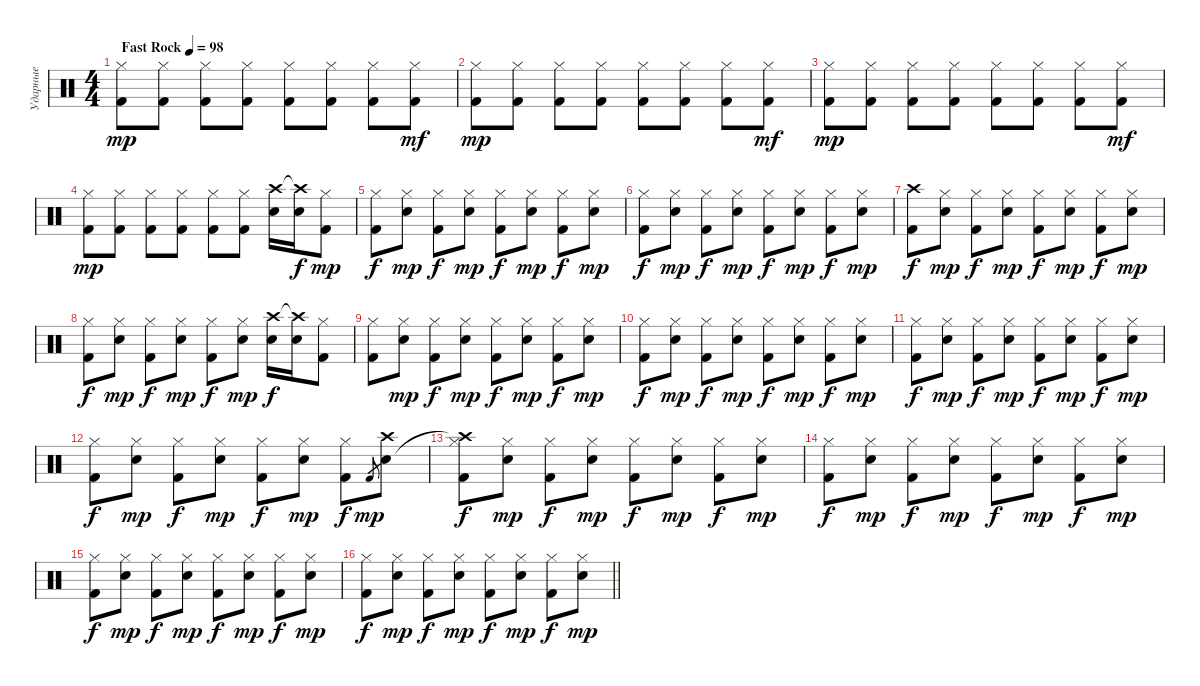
\track ("Ударные" "Ударные") {instrument percussion}
\staff {score}
\articulation defaults
\ts (4 4)
\tempo (98 "Fast Rock")
\clef neutral
\ks c
("Hi-Hat (closed)" "Kick (hit) 2").8{dy mp} ("Hi-Hat (closed)" "Kick (hit) 2").8 ("Hi-Hat (closed)" "Kick (hit) 2").8 ("Hi-Hat (closed)" "Kick (hit) 2").8 ("Hi-Hat (closed)" "Kick (hit) 2").8 ("Hi-Hat (closed)" "Kick (hit) 2").8 ("Hi-Hat (closed)" "Kick (hit) 2").8 ("Hi-Hat (closed)" "Kick (hit) 2").8{dy mf} |
("Hi-Hat (closed)" "Kick (hit) 2").8{dy mp} ("Hi-Hat (closed)" "Kick (hit) 2").8 ("Hi-Hat (closed)" "Kick (hit) 2").8 ("Hi-Hat (closed)" "Kick (hit) 2").8 ("Hi-Hat (closed)" "Kick (hit) 2").8 ("Hi-Hat (closed)" "Kick (hit) 2").8 ("Hi-Hat (closed)" "Kick (hit) 2").8 ("Hi-Hat (closed)" "Kick (hit) 2").8{dy mf} |
("Hi-Hat (closed)" "Kick (hit) 2").8{dy mp} ("Hi-Hat (closed)" "Kick (hit) 2").8 ("Hi-Hat (closed)" "Kick (hit) 2").8 ("Hi-Hat (closed)" "Kick (hit) 2").8 ("Hi-Hat (closed)" "Kick (hit) 2").8 ("Hi-Hat (closed)" "Kick (hit) 2").8 ("Hi-Hat (closed)" "Kick (hit) 2").8 ("Hi-Hat (closed)" "Kick (hit) 2").8{dy mf} |
("Hi-Hat (closed)" "Kick (hit) 2").8{dy mp} ("Hi-Hat (closed)" "Kick (hit) 2").8 ("Hi-Hat (closed)" "Kick (hit) 2").8 ("Hi-Hat (closed)" "Kick (hit) 2").8 ("Hi-Hat (closed)" "Kick (hit) 2").8 ("Hi-Hat (closed)" "Kick (hit) 2").8 ("Crash high (hit)" "Electric Snare (hit)").16 ("Crash high (hit)"{t} "Snare (hit) 2").16{dy f} ("Hi-Hat (closed)" "Kick (hit) 2").8{dy mp} |
("Hi-Hat (closed)" "Kick (hit) 2").8{dy f} ("Hi-Hat (closed)" "Snare (hit) 2").8{dy mp} ("Hi-Hat (closed)" "Kick (hit) 2").8{dy f} ("Hi-Hat (closed)" "Snare (hit) 2").8{dy mp} ("Hi-Hat (closed)" "Kick (hit) 2").8{dy f} ("Hi-Hat (closed)" "Snare (hit) 2").8{dy mp} ("Hi-Hat (closed)" "Kick (hit) 2").8{dy f} ("Hi-Hat (closed)" "Snare (hit) 2").8{dy mp} |
("Hi-Hat (closed)" "Kick (hit) 2").8{dy f} ("Hi-Hat (closed)" "Snare (hit) 2").8{dy mp} ("Hi-Hat (closed)" "Kick (hit) 2").8{dy f} ("Hi-Hat (closed)" "Snare (hit) 2").8{dy mp} ("Hi-Hat (closed)" "Kick (hit) 2").8{dy f} ("Hi-Hat (closed)" "Snare (hit) 2").8{dy mp} ("Hi-Hat (closed)" "Kick (hit) 2").8{dy f} ("Hi-Hat (closed)" "Snare (hit) 2").8{dy mp} |
("Crash high (hit)" "Kick (hit) 2").8{dy f} ("Hi-Hat (closed)" "Snare (hit) 2").8{dy mp} ("Hi-Hat (closed)" "Kick (hit) 2").8{dy f} ("Hi-Hat (closed)" "Snare (hit) 2").8{dy mp} ("Hi-Hat (closed)" "Kick (hit) 2").8{dy f} ("Hi-Hat (closed)" "Snare (hit) 2").8{dy mp} ("Hi-Hat (closed)" "Kick (hit) 2").8{dy f} ("Hi-Hat (closed)" "Snare (hit) 2").8{dy mp} |
("Hi-Hat (closed)" "Kick (hit) 2").8{dy f} ("Hi-Hat (closed)" "Snare (hit) 2").8{dy mp} ("Hi-Hat (closed)" "Kick (hit) 2").8{dy f} ("Hi-Hat (closed)" "Snare (hit) 2").8{dy mp} ("Hi-Hat (closed)" "Kick (hit) 2").8{dy f} ("Hi-Hat (closed)" "Snare (hit) 2").8{dy mp} ("Crash high (hit)" "Electric Snare (hit)").16{dy f} ("Crash high (hit)"{t} "Snare (hit) 2").16 ("Hi-Hat (closed)" "Kick (hit) 2").8 |
("Hi-Hat (closed)" "Kick (hit) 2").8 ("Hi-Hat (closed)" "Snare (hit) 2").8{dy mp} ("Hi-Hat (closed)" "Kick (hit) 2").8{dy f} ("Hi-Hat (closed)" "Snare (hit) 2").8{dy mp} ("Hi-Hat (closed)" "Kick (hit) 2").8{dy f} ("Hi-Hat (closed)" "Snare (hit) 2").8{dy mp} ("Hi-Hat (closed)" "Kick (hit) 2").8{dy f} ("Hi-Hat (closed)" "Snare (hit) 2").8{dy mp} |
("Hi-Hat (closed)" "Kick (hit) 2").8{dy f} ("Hi-Hat (closed)" "Snare (hit) 2").8{dy mp} ("Hi-Hat (closed)" "Kick (hit) 2").8{dy f} ("Hi-Hat (closed)" "Snare (hit) 2").8{dy mp} ("Hi-Hat (closed)" "Kick (hit) 2").8{dy f} ("Hi-Hat (closed)" "Snare (hit) 2").8{dy mp} ("Hi-Hat (closed)" "Kick (hit) 2").8{dy f} ("Hi-Hat (closed)" "Snare (hit) 2").8{dy mp} |
("Hi-Hat (closed)" "Kick (hit) 2").8{dy f} ("Hi-Hat (closed)" "Snare (hit) 2").8{dy mp} ("Hi-Hat (closed)" "Kick (hit) 2").8{dy f} ("Hi-Hat (closed)" "Snare (hit) 2").8{dy mp} ("Hi-Hat (closed)" "Kick (hit) 2").8{dy f} ("Hi-Hat (closed)" "Snare (hit) 2").8{dy mp} ("Hi-Hat (closed)" "Kick (hit) 2").8{dy f} ("Hi-Hat (closed)" "Snare (hit) 2").8{dy mp} |
("Hi-Hat (closed)" "Kick (hit) 2").8{dy f} ("Hi-Hat (closed)" "Snare (hit) 2").8{dy mp} ("Hi-Hat (closed)" "Kick (hit) 2").8{dy f} ("Hi-Hat (closed)" "Snare (hit) 2").8{dy mp} ("Hi-Hat (closed)" "Kick (hit) 2").8{dy f} ("Hi-Hat (closed)" "Snare (hit) 2").8{dy mp} ("Hi-Hat (closed)" "Kick (hit) 2").8{dy f} "Kick (hit) 2".8{gr dy mp} ("Crash high (hit)" "Snare (hit) 2").8 |
("Hi-Hat (closed)" "Crash high (hit)"{t} "Kick (hit) 2").8{dy f} ("Hi-Hat (closed)" "Snare (hit) 2").8{dy mp} ("Hi-Hat (closed)" "Kick (hit) 2").8{dy f} ("Hi-Hat (closed)" "Snare (hit) 2").8{dy mp} ("Hi-Hat (closed)" "Kick (hit) 2").8{dy f} ("Hi-Hat (closed)" "Snare (hit) 2").8{dy mp} ("Hi-Hat (closed)" "Kick (hit) 2").8{dy f} ("Hi-Hat (closed)" "Snare (hit) 2").8{dy mp} |
("Hi-Hat (closed)" "Kick (hit) 2").8{dy f} ("Hi-Hat (closed)" "Snare (hit) 2").8{dy mp} ("Hi-Hat (closed)" "Kick (hit) 2").8{dy f} ("Hi-Hat (closed)" "Snare (hit) 2").8{dy mp} ("Hi-Hat (closed)" "Kick (hit) 2").8{dy f} ("Hi-Hat (closed)" "Snare (hit) 2").8{dy mp} ("Hi-Hat (closed)" "Kick (hit) 2").8{dy f} ("Hi-Hat (closed)" "Snare (hit) 2").8{dy mp} |
("Hi-Hat (closed)" "Kick (hit) 2").8{dy f} ("Hi-Hat (closed)" "Snare (hit) 2").8{dy mp} ("Hi-Hat (closed)" "Kick (hit) 2").8{dy f} ("Hi-Hat (closed)" "Snare (hit) 2").8{dy mp} ("Hi-Hat (closed)" "Kick (hit) 2").8{dy f} ("Hi-Hat (closed)" "Snare (hit) 2").8{dy mp} ("Hi-Hat (closed)" "Kick (hit) 2").8{dy f} ("Hi-Hat (closed)" "Snare (hit) 2").8{dy mp} |
\barLineRight lightlight
("Hi-Hat (closed)" "Kick (hit) 2").8{dy f} ("Hi-Hat (closed)" "Snare (hit) 2").8{dy mp} ("Hi-Hat (closed)" "Kick (hit) 2").8{dy f} ("Hi-Hat (closed)" "Snare (hit) 2").8{dy mp} ("Hi-Hat (closed)" "Kick (hit) 2").8{dy f} ("Hi-Hat (closed)" "Snare (hit) 2").8{dy mp} ("Hi-Hat (closed)" "Kick (hit) 2").8{dy f} ("Hi-Hat (closed)" "Snare (hit) 2").8{dy mp}
